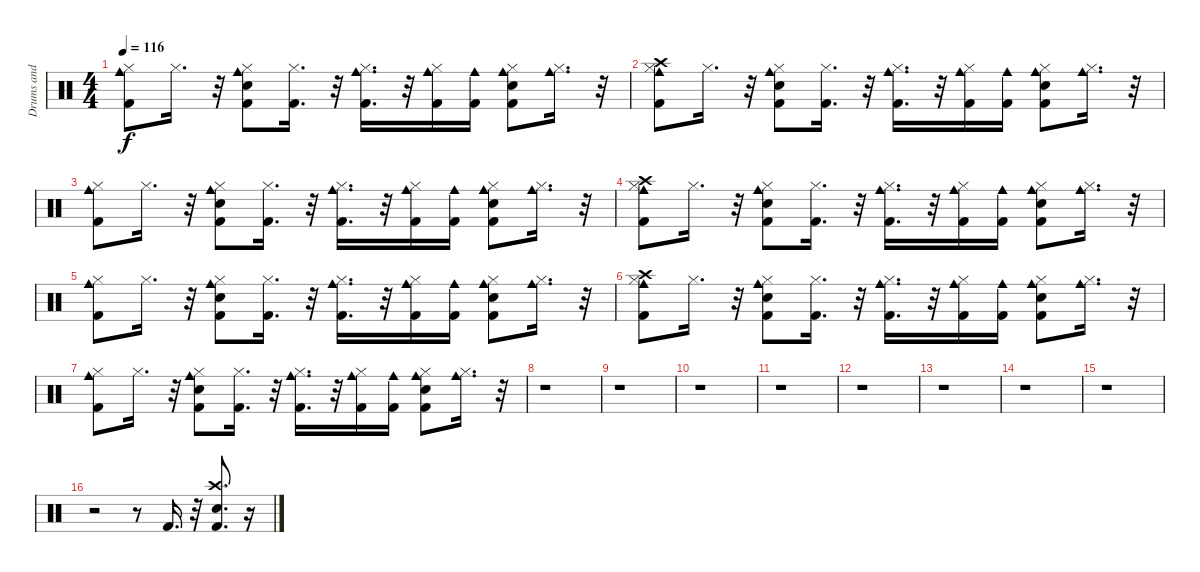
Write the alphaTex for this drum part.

\track ("Drums and Cowbell" "Drums and ") {instrument percussion}
\staff {score}
\articulation defaults
\ts (4 4)
\tempo 116
\clef neutral
\ks c
("Kick (hit) 2" "Hi-Hat (closed)" "Cowbell medium (hit)").8{dy f} "Hi-Hat (closed)".16{d} r.32 ("Snare (hit) 2" "Kick (hit) 2" "Hi-Hat (closed)" "Cowbell medium (hit)").8 ("Kick (hit) 2" "Hi-Hat (closed)").16{d} r.32 ("Hi-Hat (closed)" "Kick (hit) 2" "Cowbell medium (hit)").16{d} r.32 ("Kick (hit) 2" "Hi-Hat (closed)" "Cowbell medium (hit)").16 ("Kick (hit) 2" "Cowbell medium (hit)").16 ("Kick (hit) 2" "Snare (hit) 2" "Hi-Hat (closed)" "Cowbell medium (hit)").8 ("Hi-Hat (closed)" "Cowbell medium (hit)").16{d} r.32 |
("Kick (hit) 2" "Hi-Hat (closed)" "Cowbell medium (hit)" "Crash high (hit)").8 "Hi-Hat (closed)".16{d} r.32 ("Snare (hit) 2" "Kick (hit) 2" "Hi-Hat (closed)" "Cowbell medium (hit)").8 ("Kick (hit) 2" "Hi-Hat (closed)").16{d} r.32 ("Hi-Hat (closed)" "Kick (hit) 2" "Cowbell medium (hit)").16{d} r.32 ("Kick (hit) 2" "Hi-Hat (closed)" "Cowbell medium (hit)").16 ("Kick (hit) 2" "Cowbell medium (hit)").16 ("Kick (hit) 2" "Snare (hit) 2" "Hi-Hat (closed)" "Cowbell medium (hit)").8 ("Hi-Hat (closed)" "Cowbell medium (hit)").16{d} r.32 |
("Kick (hit) 2" "Hi-Hat (closed)" "Cowbell medium (hit)").8 "Hi-Hat (closed)".16{d} r.32 ("Snare (hit) 2" "Kick (hit) 2" "Hi-Hat (closed)" "Cowbell medium (hit)").8 ("Kick (hit) 2" "Hi-Hat (closed)").16{d} r.32 ("Hi-Hat (closed)" "Kick (hit) 2" "Cowbell medium (hit)").16{d} r.32 ("Kick (hit) 2" "Hi-Hat (closed)" "Cowbell medium (hit)").16 ("Kick (hit) 2" "Cowbell medium (hit)").16 ("Kick (hit) 2" "Snare (hit) 2" "Hi-Hat (closed)" "Cowbell medium (hit)").8 ("Hi-Hat (closed)" "Cowbell medium (hit)").16{d} r.32 |
("Kick (hit) 2" "Hi-Hat (closed)" "Crash high (hit)" "Cowbell medium (hit)").8 "Hi-Hat (closed)".16{d} r.32 ("Snare (hit) 2" "Kick (hit) 2" "Hi-Hat (closed)" "Cowbell medium (hit)").8 ("Kick (hit) 2" "Hi-Hat (closed)").16{d} r.32 ("Hi-Hat (closed)" "Kick (hit) 2" "Cowbell medium (hit)").16{d} r.32 ("Kick (hit) 2" "Hi-Hat (closed)" "Cowbell medium (hit)").16 ("Kick (hit) 2" "Cowbell medium (hit)").16 ("Kick (hit) 2" "Snare (hit) 2" "Hi-Hat (closed)" "Cowbell medium (hit)").8 ("Hi-Hat (closed)" "Cowbell medium (hit)").16{d} r.32 |
("Kick (hit) 2" "Hi-Hat (closed)" "Cowbell medium (hit)").8 "Hi-Hat (closed)".16{d} r.32 ("Snare (hit) 2" "Kick (hit) 2" "Hi-Hat (closed)" "Cowbell medium (hit)").8 ("Kick (hit) 2" "Hi-Hat (closed)").16{d} r.32 ("Hi-Hat (closed)" "Kick (hit) 2" "Cowbell medium (hit)").16{d} r.32 ("Kick (hit) 2" "Hi-Hat (closed)" "Cowbell medium (hit)").16 ("Kick (hit) 2" "Cowbell medium (hit)").16 ("Kick (hit) 2" "Snare (hit) 2" "Hi-Hat (closed)" "Cowbell medium (hit)").8 ("Hi-Hat (closed)" "Cowbell medium (hit)").16{d} r.32 |
("Kick (hit) 2" "Hi-Hat (closed)" "Cowbell medium (hit)" "Crash high (hit)").8 "Hi-Hat (closed)".16{d} r.32 ("Snare (hit) 2" "Kick (hit) 2" "Hi-Hat (closed)" "Cowbell medium (hit)").8 ("Kick (hit) 2" "Hi-Hat (closed)").16{d} r.32 ("Hi-Hat (closed)" "Kick (hit) 2" "Cowbell medium (hit)").16{d} r.32 ("Kick (hit) 2" "Hi-Hat (closed)" "Cowbell medium (hit)").16 ("Kick (hit) 2" "Cowbell medium (hit)").16 ("Kick (hit) 2" "Snare (hit) 2" "Hi-Hat (closed)" "Cowbell medium (hit)").8 ("Hi-Hat (closed)" "Cowbell medium (hit)").16{d} r.32 |
("Kick (hit) 2" "Hi-Hat (closed)" "Cowbell medium (hit)").8 "Hi-Hat (closed)".16{d} r.32 ("Snare (hit) 2" "Kick (hit) 2" "Hi-Hat (closed)" "Cowbell medium (hit)").8 ("Kick (hit) 2" "Hi-Hat (closed)").16{d} r.32 ("Hi-Hat (closed)" "Kick (hit) 2" "Cowbell medium (hit)").16{d} r.32 ("Kick (hit) 2" "Hi-Hat (closed)" "Cowbell medium (hit)").16 ("Kick (hit) 2" "Cowbell medium (hit)").16 ("Kick (hit) 2" "Snare (hit) 2" "Hi-Hat (closed)" "Cowbell medium (hit)").8 ("Hi-Hat (closed)" "Cowbell medium (hit)").16{d} r.32 |
r.1 |
r.1 |
r.1 |
r.1 |
r.1 |
r.1 |
r.1 |
r.1 |
r.2 r.8 "Kick (hit) 2".16{d} r.32 ("Crash high (hit)" "Electric Snare (hit)" "Kick (hit) 2").8{d} r.16
